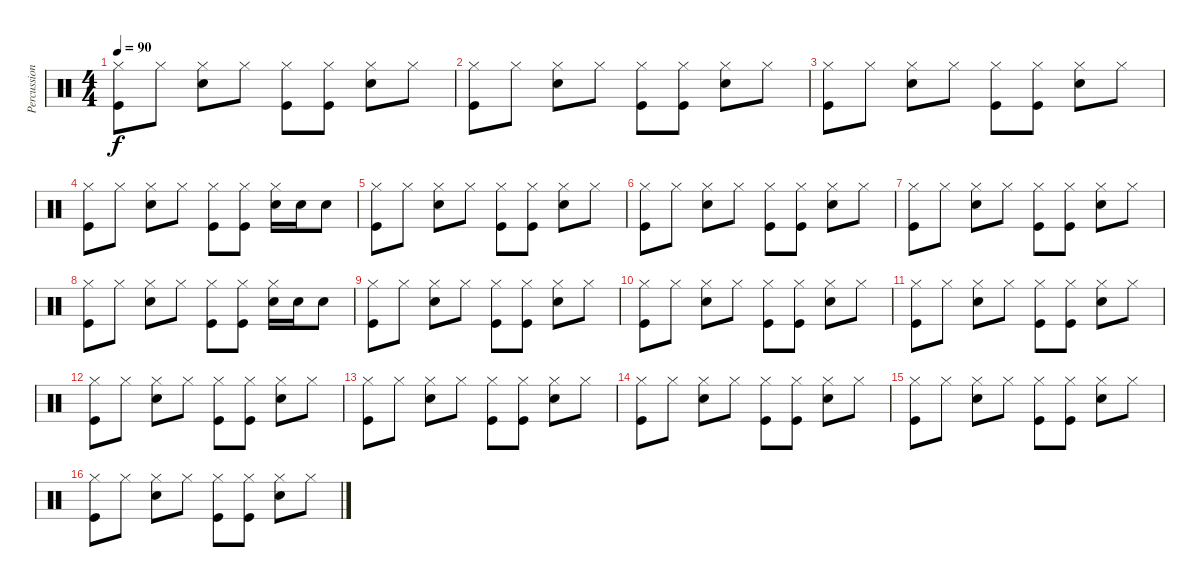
\track ("Percussion" "Percussion") {instrument percussion}
\staff {score}
\articulation defaults
\ts (4 4)
\tempo 90
\clef neutral
\ks c
("Hi-Hat (closed)" "Kick (hit)").8{dy f} "Hi-Hat (closed)".8 ("Hi-Hat (closed)" "Snare (hit) 2").8 "Hi-Hat (closed)".8 ("Hi-Hat (closed)" "Kick (hit)").8 ("Hi-Hat (closed)" "Kick (hit)").8 ("Hi-Hat (closed)" "Snare (hit) 2").8 "Hi-Hat (closed)".8 |
("Hi-Hat (closed)" "Kick (hit)").8 "Hi-Hat (closed)".8 ("Hi-Hat (closed)" "Snare (hit) 2").8 "Hi-Hat (closed)".8 ("Hi-Hat (closed)" "Kick (hit)").8 ("Hi-Hat (closed)" "Kick (hit)").8 ("Hi-Hat (closed)" "Snare (hit) 2").8 "Hi-Hat (closed)".8 |
("Hi-Hat (closed)" "Kick (hit)").8 "Hi-Hat (closed)".8 ("Hi-Hat (closed)" "Snare (hit) 2").8 "Hi-Hat (closed)".8 ("Hi-Hat (closed)" "Kick (hit)").8 ("Hi-Hat (closed)" "Kick (hit)").8 ("Hi-Hat (closed)" "Snare (hit) 2").8 "Hi-Hat (closed)".8 |
("Hi-Hat (closed)" "Kick (hit)").8 "Hi-Hat (closed)".8 ("Hi-Hat (closed)" "Snare (hit) 2").8 "Hi-Hat (closed)".8 ("Hi-Hat (closed)" "Kick (hit)").8 ("Hi-Hat (closed)" "Kick (hit)").8 ("Hi-Hat (closed)" "Snare (hit) 2").16 "Snare (hit) 2".16 "Snare (hit) 2".8 |
("Hi-Hat (closed)" "Kick (hit)").8 "Hi-Hat (closed)".8 ("Hi-Hat (closed)" "Snare (hit) 2").8 "Hi-Hat (closed)".8 ("Hi-Hat (closed)" "Kick (hit)").8 ("Hi-Hat (closed)" "Kick (hit)").8 ("Hi-Hat (closed)" "Snare (hit) 2").8 "Hi-Hat (closed)".8 |
("Hi-Hat (closed)" "Kick (hit)").8 "Hi-Hat (closed)".8 ("Hi-Hat (closed)" "Snare (hit) 2").8 "Hi-Hat (closed)".8 ("Hi-Hat (closed)" "Kick (hit)").8 ("Hi-Hat (closed)" "Kick (hit)").8 ("Hi-Hat (closed)" "Snare (hit) 2").8 "Hi-Hat (closed)".8 |
("Hi-Hat (closed)" "Kick (hit)").8 "Hi-Hat (closed)".8 ("Hi-Hat (closed)" "Snare (hit) 2").8 "Hi-Hat (closed)".8 ("Hi-Hat (closed)" "Kick (hit)").8 ("Hi-Hat (closed)" "Kick (hit)").8 ("Hi-Hat (closed)" "Snare (hit) 2").8 "Hi-Hat (closed)".8 |
("Hi-Hat (closed)" "Kick (hit)").8 "Hi-Hat (closed)".8 ("Hi-Hat (closed)" "Snare (hit) 2").8 "Hi-Hat (closed)".8 ("Hi-Hat (closed)" "Kick (hit)").8 ("Hi-Hat (closed)" "Kick (hit)").8 ("Hi-Hat (closed)" "Snare (hit) 2").16 "Snare (hit) 2".16 "Snare (hit) 2".8 |
("Hi-Hat (closed)" "Kick (hit)").8 "Hi-Hat (closed)".8 ("Hi-Hat (closed)" "Snare (hit) 2").8 "Hi-Hat (closed)".8 ("Hi-Hat (closed)" "Kick (hit)").8 ("Hi-Hat (closed)" "Kick (hit)").8 ("Hi-Hat (closed)" "Snare (hit) 2").8 "Hi-Hat (closed)".8 |
("Hi-Hat (closed)" "Kick (hit)").8 "Hi-Hat (closed)".8 ("Hi-Hat (closed)" "Snare (hit) 2").8 "Hi-Hat (closed)".8 ("Hi-Hat (closed)" "Kick (hit)").8 ("Hi-Hat (closed)" "Kick (hit)").8 ("Hi-Hat (closed)" "Snare (hit) 2").8 "Hi-Hat (closed)".8 |
("Hi-Hat (closed)" "Kick (hit)").8 "Hi-Hat (closed)".8 ("Hi-Hat (closed)" "Snare (hit) 2").8 "Hi-Hat (closed)".8 ("Hi-Hat (closed)" "Kick (hit)").8 ("Hi-Hat (closed)" "Kick (hit)").8 ("Hi-Hat (closed)" "Snare (hit) 2").8 "Hi-Hat (closed)".8 |
("Hi-Hat (closed)" "Kick (hit)").8 "Hi-Hat (closed)".8 ("Hi-Hat (closed)" "Snare (hit) 2").8 "Hi-Hat (closed)".8 ("Hi-Hat (closed)" "Kick (hit)").8 ("Hi-Hat (closed)" "Kick (hit)").8 ("Hi-Hat (closed)" "Snare (hit) 2").8 "Hi-Hat (closed)".8 |
("Hi-Hat (closed)" "Kick (hit)").8 "Hi-Hat (closed)".8 ("Hi-Hat (closed)" "Snare (hit) 2").8 "Hi-Hat (closed)".8 ("Hi-Hat (closed)" "Kick (hit)").8 ("Hi-Hat (closed)" "Kick (hit)").8 ("Hi-Hat (closed)" "Snare (hit) 2").8 "Hi-Hat (closed)".8 |
("Hi-Hat (closed)" "Kick (hit)").8 "Hi-Hat (closed)".8 ("Hi-Hat (closed)" "Snare (hit) 2").8 "Hi-Hat (closed)".8 ("Hi-Hat (closed)" "Kick (hit)").8 ("Hi-Hat (closed)" "Kick (hit)").8 ("Hi-Hat (closed)" "Snare (hit) 2").8 "Hi-Hat (closed)".8 |
("Hi-Hat (closed)" "Kick (hit)").8 "Hi-Hat (closed)".8 ("Hi-Hat (closed)" "Snare (hit) 2").8 "Hi-Hat (closed)".8 ("Hi-Hat (closed)" "Kick (hit)").8 ("Hi-Hat (closed)" "Kick (hit)").8 ("Hi-Hat (closed)" "Snare (hit) 2").8 "Hi-Hat (closed)".8 |
("Hi-Hat (closed)" "Kick (hit)").8 "Hi-Hat (closed)".8 ("Hi-Hat (closed)" "Snare (hit) 2").8 "Hi-Hat (closed)".8 ("Hi-Hat (closed)" "Kick (hit)").8 ("Hi-Hat (closed)" "Kick (hit)").8 ("Hi-Hat (closed)" "Snare (hit) 2").8 "Hi-Hat (closed)".8
